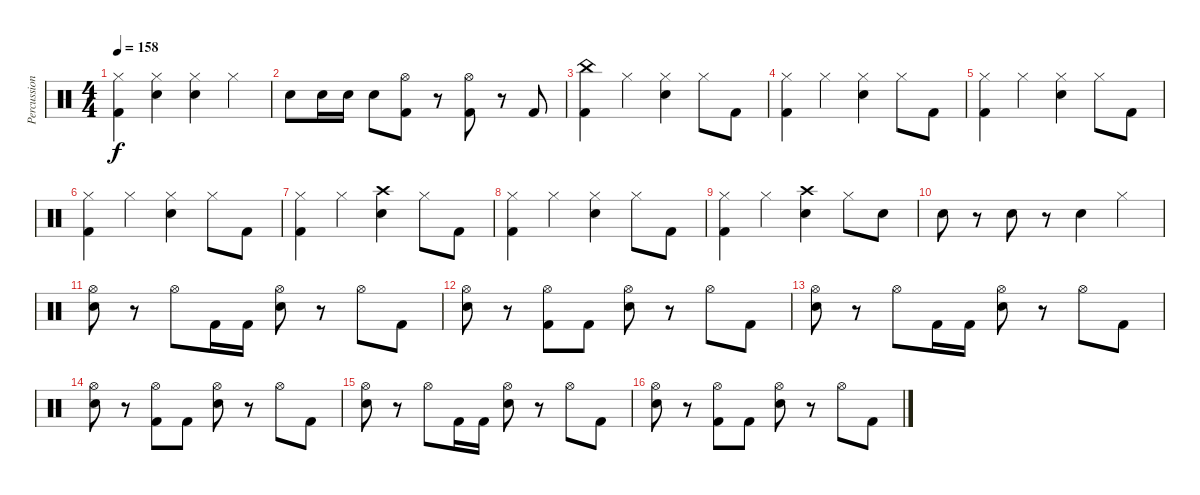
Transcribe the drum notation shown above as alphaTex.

\track ("Percussions" "Percussion") {instrument percussion}
\staff {score}
\articulation defaults
\ts (4 4)
\tempo 158
\clef neutral
\ks c
("Hi-Hat (closed)" "Kick (hit) 2").4{dy f} ("Hi-Hat (closed)" "Snare (hit) 2").4 ("Hi-Hat (closed)" "Snare (hit) 2").4 "Hi-Hat (closed)".4 |
"Snare (hit) 2".8 "Snare (hit) 2".16 "Snare (hit) 2".16 "Snare (hit) 2".8 ("Hi-Hat (open)" "Kick (hit) 2").8 r.8 ("Hi-Hat (open)" "Kick (hit) 2").8 r.8 "Kick (hit) 2".8 |
("China (hit)" "Kick (hit) 2").4 "Hi-Hat (closed)".4 ("Hi-Hat (closed)" "Snare (hit) 2").4 "Hi-Hat (closed)".8 "Kick (hit) 2".8 |
("Hi-Hat (closed)" "Kick (hit) 2").4 "Hi-Hat (closed)".4 ("Hi-Hat (closed)" "Snare (hit) 2").4 "Hi-Hat (closed)".8 "Kick (hit) 2".8 |
("Hi-Hat (closed)" "Kick (hit) 2").4 "Hi-Hat (closed)".4 ("Hi-Hat (closed)" "Snare (hit) 2").4 "Hi-Hat (closed)".8 "Kick (hit) 2".8 |
("Hi-Hat (closed)" "Kick (hit) 2").4 "Hi-Hat (closed)".4 ("Hi-Hat (closed)" "Snare (hit) 2").4 "Hi-Hat (closed)".8 "Kick (hit) 2".8 |
("Hi-Hat (closed)" "Kick (hit) 2").4 "Hi-Hat (closed)".4 ("Crash high (hit)" "Snare (hit) 2").4 "Hi-Hat (closed)".8 "Kick (hit) 2".8 |
("Hi-Hat (closed)" "Kick (hit) 2").4 "Hi-Hat (closed)".4 ("Hi-Hat (closed)" "Snare (hit) 2").4 "Hi-Hat (closed)".8 "Kick (hit) 2".8 |
("Hi-Hat (closed)" "Kick (hit) 2").4 "Hi-Hat (closed)".4 ("Crash high (hit)" "Snare (hit) 2").4 "Hi-Hat (closed)".8 "Snare (hit) 2".8 |
"Snare (hit) 2".8 r.8 "Snare (hit) 2".8 r.8 "Snare (hit) 2".4 "Hi-Hat (closed)".4 |
("Hi-Hat (open)" "Snare (hit) 2").8 r.8 "Hi-Hat (open)".8 "Kick (hit) 2".16 "Kick (hit) 2".16 ("Hi-Hat (open)" "Snare (hit) 2").8 r.8 "Hi-Hat (open)".8 "Kick (hit) 2".8 |
("Hi-Hat (open)" "Snare (hit) 2").8 r.8 ("Hi-Hat (open)" "Kick (hit) 2").8 "Kick (hit) 2".8 ("Hi-Hat (open)" "Snare (hit) 2").8 r.8 "Hi-Hat (open)".8 "Kick (hit) 2".8 |
("Hi-Hat (open)" "Snare (hit) 2").8 r.8 "Hi-Hat (open)".8 "Kick (hit) 2".16 "Kick (hit) 2".16 ("Hi-Hat (open)" "Snare (hit) 2").8 r.8 "Hi-Hat (open)".8 "Kick (hit) 2".8 |
("Hi-Hat (open)" "Snare (hit) 2").8 r.8 ("Hi-Hat (open)" "Kick (hit) 2").8 "Kick (hit) 2".8 ("Hi-Hat (open)" "Snare (hit) 2").8 r.8 "Hi-Hat (open)".8 "Kick (hit) 2".8 |
("Hi-Hat (open)" "Snare (hit) 2").8 r.8 "Hi-Hat (open)".8 "Kick (hit) 2".16 "Kick (hit) 2".16 ("Hi-Hat (open)" "Snare (hit) 2").8 r.8 "Hi-Hat (open)".8 "Kick (hit) 2".8 |
("Hi-Hat (open)" "Snare (hit) 2").8 r.8 ("Hi-Hat (open)" "Kick (hit) 2").8 "Kick (hit) 2".8 ("Hi-Hat (open)" "Snare (hit) 2").8 r.8 "Hi-Hat (open)".8 "Kick (hit) 2".8
